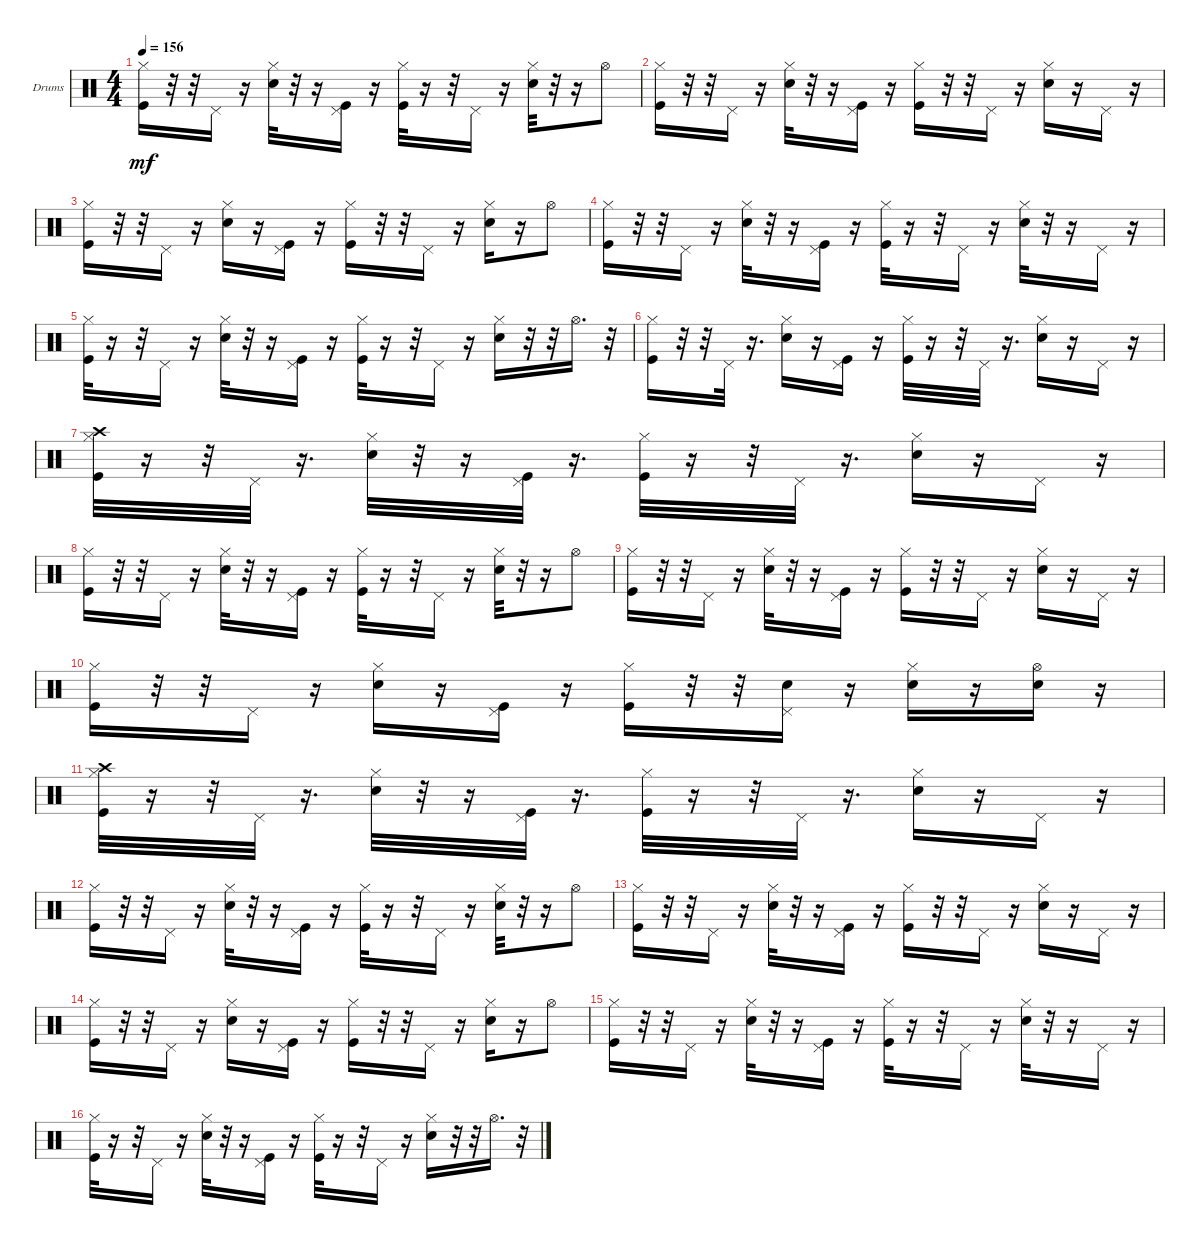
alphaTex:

\defaultSystemsLayout 4
\bracketExtendMode groupsimilarinstruments
\firstSystemTrackNameOrientation horizontal
\otherSystemsTrackNameOrientation horizontal
\track ("Drumkit" "Drums") {instrument percussion}
\staff {score}
\articulation defaults
\ts (4 4)
\tempo 156
\clef neutral
\ks c
("Kick (hit)" "Hi-Hat (closed)").16{dy mf} r.32 r.32 "Pedal Hi-Hat (hit)".16 r.16 ("Snare (hit) 2" "Hi-Hat (closed)").32 r.32 r.16 ("Kick (hit)" "Pedal Hi-Hat (hit)").16 r.16 ("Kick (hit)" "Hi-Hat (closed)").32 r.16 r.32 "Pedal Hi-Hat (hit)".16 r.16 ("Snare (hit) 2" "Hi-Hat (closed)").32 r.32 r.16 "Hi-Hat (open)".8 |
("Kick (hit)" "Hi-Hat (closed)").16 r.32 r.32 "Pedal Hi-Hat (hit)".16 r.16 ("Snare (hit) 2" "Hi-Hat (closed)").32 r.32 r.16 ("Kick (hit)" "Pedal Hi-Hat (hit)").16 r.16 ("Kick (hit)" "Hi-Hat (closed)").16 r.32 r.32 "Pedal Hi-Hat (hit)".16 r.16 ("Snare (hit) 2" "Hi-Hat (closed)").16 r.16 "Pedal Hi-Hat (hit)".16 r.16 |
("Kick (hit)" "Hi-Hat (closed)").16 r.32 r.32 "Pedal Hi-Hat (hit)".16 r.16 ("Snare (hit) 2" "Hi-Hat (closed)").16 r.16 ("Kick (hit)" "Pedal Hi-Hat (hit)").16 r.16 ("Kick (hit)" "Hi-Hat (closed)").16 r.32 r.32 "Pedal Hi-Hat (hit)".16 r.16 ("Snare (hit) 2" "Hi-Hat (closed)").16 r.16 "Hi-Hat (open)".8 |
("Kick (hit)" "Hi-Hat (closed)").16 r.32 r.32 "Pedal Hi-Hat (hit)".16 r.16 ("Snare (hit) 2" "Hi-Hat (closed)").32 r.32 r.16 ("Kick (hit)" "Pedal Hi-Hat (hit)").16 r.16 ("Kick (hit)" "Hi-Hat (closed)").32 r.16 r.32 "Pedal Hi-Hat (hit)".16 r.16 ("Snare (hit) 2" "Hi-Hat (closed)").32 r.32 r.16 "Pedal Hi-Hat (hit)".16 r.16 |
("Kick (hit)" "Hi-Hat (closed)").32 r.16 r.32 "Pedal Hi-Hat (hit)".16 r.16 ("Snare (hit) 2" "Hi-Hat (closed)").32 r.32 r.16 ("Kick (hit)" "Pedal Hi-Hat (hit)").16 r.16 ("Kick (hit)" "Hi-Hat (closed)").32 r.16 r.32 "Pedal Hi-Hat (hit)".16 r.16 ("Snare (hit) 2" "Hi-Hat (closed)").16 r.32 r.32 "Hi-Hat (open)".16{d} r.32 |
("Kick (hit)" "Hi-Hat (closed)").16 r.32 r.32 "Pedal Hi-Hat (hit)".32 r.16{d} ("Snare (hit) 2" "Hi-Hat (closed)").16 r.16 ("Kick (hit)" "Pedal Hi-Hat (hit)").16 r.16 ("Kick (hit)" "Hi-Hat (closed)").32 r.16 r.32 "Pedal Hi-Hat (hit)".32 r.16{d} ("Snare (hit) 2" "Hi-Hat (closed)").16 r.16 "Pedal Hi-Hat (hit)".16 r.16 |
("Kick (hit)" "Crash high (hit)" "Hi-Hat (closed)").32 r.16 r.32 "Pedal Hi-Hat (hit)".32 r.16{d} ("Snare (hit) 2" "Hi-Hat (closed)").32 r.32 r.16 ("Kick (hit)" "Pedal Hi-Hat (hit)").32 r.16{d} ("Kick (hit)" "Hi-Hat (closed)").32 r.16 r.32 "Pedal Hi-Hat (hit)".32 r.16{d} ("Snare (hit) 2" "Hi-Hat (closed)").16 r.16 "Pedal Hi-Hat (hit)".16 r.16 |
("Kick (hit)" "Hi-Hat (closed)").16 r.32 r.32 "Pedal Hi-Hat (hit)".16 r.16 ("Snare (hit) 2" "Hi-Hat (closed)").32 r.32 r.16 ("Kick (hit)" "Pedal Hi-Hat (hit)").16 r.16 ("Kick (hit)" "Hi-Hat (closed)").32 r.16 r.32 "Pedal Hi-Hat (hit)".16 r.16 ("Snare (hit) 2" "Hi-Hat (closed)").32 r.32 r.16 "Hi-Hat (open)".8 |
("Kick (hit)" "Hi-Hat (closed)").16 r.32 r.32 "Pedal Hi-Hat (hit)".16 r.16 ("Snare (hit) 2" "Hi-Hat (closed)").32 r.32 r.16 ("Kick (hit)" "Pedal Hi-Hat (hit)").16 r.16 ("Kick (hit)" "Hi-Hat (closed)").16 r.32 r.32 "Pedal Hi-Hat (hit)".16 r.16 ("Snare (hit) 2" "Hi-Hat (closed)").16 r.16 "Pedal Hi-Hat (hit)".16 r.16 |
("Kick (hit)" "Hi-Hat (closed)").16 r.32 r.32 "Pedal Hi-Hat (hit)".16 r.16 ("Snare (hit) 2" "Hi-Hat (closed)").16 r.16 ("Kick (hit)" "Pedal Hi-Hat (hit)").16 r.16 ("Kick (hit)" "Hi-Hat (closed)").16 r.32 r.32 ("Pedal Hi-Hat (hit)" "Snare (hit) 2").16 r.16 ("Snare (hit) 2" "Hi-Hat (closed)").16 r.16 ("Hi-Hat (open)" "Snare (hit) 2").16 r.16 |
("Kick (hit)" "Crash high (hit)" "Hi-Hat (closed)").32 r.16 r.32 "Pedal Hi-Hat (hit)".32 r.16{d} ("Snare (hit) 2" "Hi-Hat (closed)").32 r.32 r.16 ("Kick (hit)" "Pedal Hi-Hat (hit)").32 r.16{d} ("Kick (hit)" "Hi-Hat (closed)").32 r.16 r.32 "Pedal Hi-Hat (hit)".32 r.16{d} ("Snare (hit) 2" "Hi-Hat (closed)").16 r.16 "Pedal Hi-Hat (hit)".16 r.16 |
("Kick (hit)" "Hi-Hat (closed)").16 r.32 r.32 "Pedal Hi-Hat (hit)".16 r.16 ("Snare (hit) 2" "Hi-Hat (closed)").32 r.32 r.16 ("Kick (hit)" "Pedal Hi-Hat (hit)").16 r.16 ("Kick (hit)" "Hi-Hat (closed)").32 r.16 r.32 "Pedal Hi-Hat (hit)".16 r.16 ("Snare (hit) 2" "Hi-Hat (closed)").32 r.32 r.16 "Hi-Hat (open)".8 |
("Kick (hit)" "Hi-Hat (closed)").16 r.32 r.32 "Pedal Hi-Hat (hit)".16 r.16 ("Snare (hit) 2" "Hi-Hat (closed)").32 r.32 r.16 ("Kick (hit)" "Pedal Hi-Hat (hit)").16 r.16 ("Kick (hit)" "Hi-Hat (closed)").16 r.32 r.32 "Pedal Hi-Hat (hit)".16 r.16 ("Snare (hit) 2" "Hi-Hat (closed)").16 r.16 "Pedal Hi-Hat (hit)".16 r.16 |
("Kick (hit)" "Hi-Hat (closed)").16 r.32 r.32 "Pedal Hi-Hat (hit)".16 r.16 ("Snare (hit) 2" "Hi-Hat (closed)").16 r.16 ("Kick (hit)" "Pedal Hi-Hat (hit)").16 r.16 ("Kick (hit)" "Hi-Hat (closed)").16 r.32 r.32 "Pedal Hi-Hat (hit)".16 r.16 ("Snare (hit) 2" "Hi-Hat (closed)").16 r.16 "Hi-Hat (open)".8 |
("Kick (hit)" "Hi-Hat (closed)").16 r.32 r.32 "Pedal Hi-Hat (hit)".16 r.16 ("Snare (hit) 2" "Hi-Hat (closed)").32 r.32 r.16 ("Kick (hit)" "Pedal Hi-Hat (hit)").16 r.16 ("Kick (hit)" "Hi-Hat (closed)").32 r.16 r.32 "Pedal Hi-Hat (hit)".16 r.16 ("Snare (hit) 2" "Hi-Hat (closed)").32 r.32 r.16 "Pedal Hi-Hat (hit)".16 r.16 |
("Kick (hit)" "Hi-Hat (closed)").32 r.16 r.32 "Pedal Hi-Hat (hit)".16 r.16 ("Snare (hit) 2" "Hi-Hat (closed)").32 r.32 r.16 ("Kick (hit)" "Pedal Hi-Hat (hit)").16 r.16 ("Kick (hit)" "Hi-Hat (closed)").32 r.16 r.32 "Pedal Hi-Hat (hit)".16 r.16 ("Snare (hit) 2" "Hi-Hat (closed)").16 r.32 r.32 "Hi-Hat (open)".16{d} r.32
